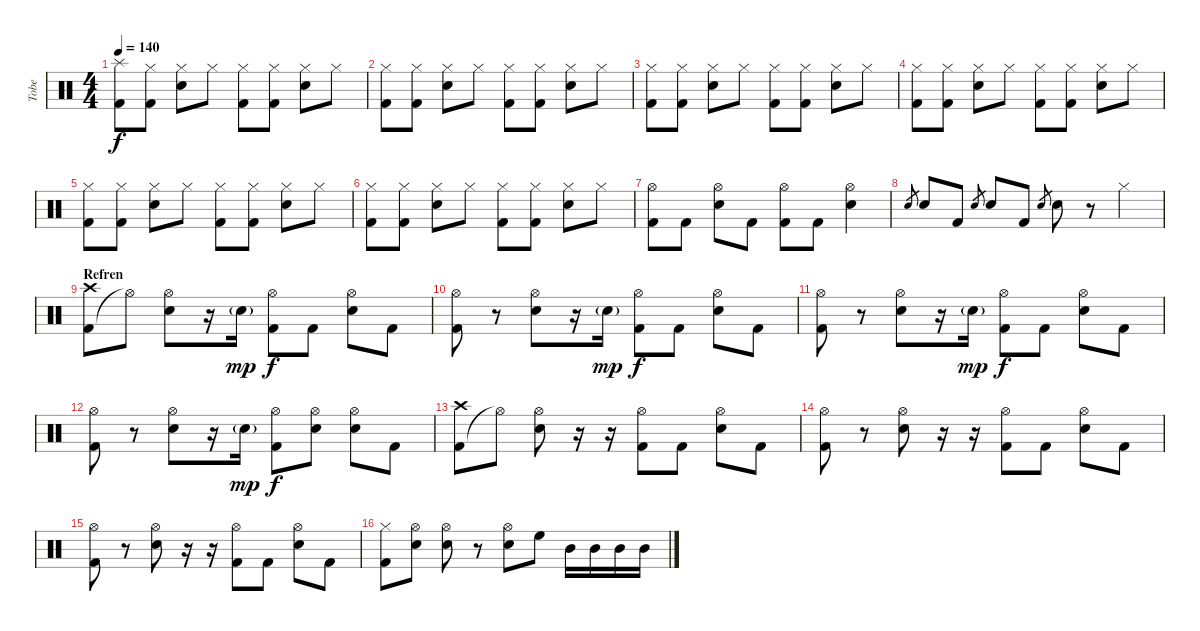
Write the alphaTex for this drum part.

\track ("Tobe" "Tobe") {instrument percussion}
\staff {score}
\articulation defaults
\ts (4 4)
\tempo 140
\clef neutral
\ks c
("Kick (hit) 2" "Splash (hit)").8{dy f} ("Kick (hit) 2" "Hi-Hat (closed)").8 ("Electric Snare (hit)" "Hi-Hat (closed)").8 "Hi-Hat (closed)".8 ("Kick (hit) 2" "Hi-Hat (closed)").8 ("Kick (hit) 2" "Hi-Hat (closed)").8 ("Electric Snare (hit)" "Hi-Hat (closed)").8 "Hi-Hat (closed)".8 |
("Kick (hit) 2" "Hi-Hat (closed)").8 ("Kick (hit) 2" "Hi-Hat (closed)").8 ("Electric Snare (hit)" "Hi-Hat (closed)").8 "Hi-Hat (closed)".8 ("Kick (hit) 2" "Hi-Hat (closed)").8 ("Kick (hit) 2" "Hi-Hat (closed)").8 ("Electric Snare (hit)" "Hi-Hat (closed)").8 "Hi-Hat (closed)".8 |
("Kick (hit) 2" "Hi-Hat (closed)").8 ("Kick (hit) 2" "Hi-Hat (closed)").8 ("Electric Snare (hit)" "Hi-Hat (closed)").8 "Hi-Hat (closed)".8 ("Kick (hit) 2" "Hi-Hat (closed)").8 ("Kick (hit) 2" "Hi-Hat (closed)").8 ("Electric Snare (hit)" "Hi-Hat (closed)").8 "Hi-Hat (closed)".8 |
("Kick (hit) 2" "Hi-Hat (closed)").8 ("Kick (hit) 2" "Hi-Hat (closed)").8 ("Electric Snare (hit)" "Hi-Hat (closed)").8 "Hi-Hat (closed)".8 ("Kick (hit) 2" "Hi-Hat (closed)").8 ("Kick (hit) 2" "Hi-Hat (closed)").8 ("Electric Snare (hit)" "Hi-Hat (closed)").8 "Hi-Hat (closed)".8 |
("Kick (hit) 2" "Hi-Hat (closed)").8 ("Kick (hit) 2" "Hi-Hat (closed)").8 ("Electric Snare (hit)" "Hi-Hat (closed)").8 "Hi-Hat (closed)".8 ("Kick (hit) 2" "Hi-Hat (closed)").8 ("Kick (hit) 2" "Hi-Hat (closed)").8 ("Electric Snare (hit)" "Hi-Hat (closed)").8 "Hi-Hat (closed)".8 |
("Kick (hit) 2" "Hi-Hat (closed)").8 ("Kick (hit) 2" "Hi-Hat (closed)").8 ("Electric Snare (hit)" "Hi-Hat (closed)").8 "Hi-Hat (closed)".8 ("Kick (hit) 2" "Hi-Hat (closed)").8 ("Kick (hit) 2" "Hi-Hat (closed)").8 ("Electric Snare (hit)" "Hi-Hat (closed)").8 "Hi-Hat (closed)".8 |
("Kick (hit) 2" "Hi-Hat (open)").8 "Kick (hit) 2".8 ("Electric Snare (hit)" "Hi-Hat (open)").8 "Kick (hit) 2".8 ("Kick (hit) 2" "Hi-Hat (open)").8 "Kick (hit) 2".8 ("Electric Snare (hit)" "Hi-Hat (open)").4 |
"Electric Snare (hit)".8{gr} "Electric Snare (hit)".8 "Kick (hit) 2".8 "Electric Snare (hit)".8{gr} "Electric Snare (hit)".8 "Kick (hit) 2".8 "Electric Snare (hit)".8{gr} "Electric Snare (hit)".8 r.8 "Hi-Hat (closed)".4 |
\section ("" "Refren")
("Kick (hit) 2" "Crash high (hit)").8 "Hi-Hat (open)"{t}.8 ("Electric Snare (hit)" "Hi-Hat (open)").8 r.16 "Electric Snare (hit)"{g}.16{dy mp} ("Kick (hit) 2" "Hi-Hat (open)").8{dy f} "Kick (hit) 2".8 ("Electric Snare (hit)" "Hi-Hat (open)").8 "Kick (hit) 2".8 |
("Kick (hit) 2" "Hi-Hat (open)").8 r.8 ("Electric Snare (hit)" "Hi-Hat (open)").8 r.16 "Electric Snare (hit)"{g}.16{dy mp} ("Kick (hit) 2" "Hi-Hat (open)").8{dy f} "Kick (hit) 2".8 ("Electric Snare (hit)" "Hi-Hat (open)").8 "Kick (hit) 2".8 |
("Kick (hit) 2" "Hi-Hat (open)").8 r.8 ("Electric Snare (hit)" "Hi-Hat (open)").8 r.16 "Electric Snare (hit)"{g}.16{dy mp} ("Kick (hit) 2" "Hi-Hat (open)").8{dy f} "Kick (hit) 2".8 ("Electric Snare (hit)" "Hi-Hat (open)").8 "Kick (hit) 2".8 |
("Kick (hit) 2" "Hi-Hat (open)").8 r.8 ("Electric Snare (hit)" "Hi-Hat (open)").8 r.16 "Electric Snare (hit)"{g}.16{dy mp} ("Kick (hit) 2" "Hi-Hat (open)").8{dy f} ("Electric Snare (hit)" "Hi-Hat (open)").8 ("Electric Snare (hit)" "Hi-Hat (open)").8 "Kick (hit) 2".8 |
("Kick (hit) 2" "Crash high (hit)").8 "Hi-Hat (open)"{t}.8 ("Electric Snare (hit)" "Hi-Hat (open)").8 r.16 r.16 ("Kick (hit) 2" "Hi-Hat (open)").8 "Kick (hit) 2".8 ("Electric Snare (hit)" "Hi-Hat (open)").8 "Kick (hit) 2".8 |
("Kick (hit) 2" "Hi-Hat (open)").8 r.8 ("Electric Snare (hit)" "Hi-Hat (open)").8 r.16 r.16 ("Kick (hit) 2" "Hi-Hat (open)").8 "Kick (hit) 2".8 ("Electric Snare (hit)" "Hi-Hat (open)").8 "Kick (hit) 2".8 |
("Kick (hit) 2" "Hi-Hat (open)").8 r.8 ("Electric Snare (hit)" "Hi-Hat (open)").8 r.16 r.16 ("Kick (hit) 2" "Hi-Hat (open)").8 "Kick (hit) 2".8 ("Electric Snare (hit)" "Hi-Hat (open)").8 "Kick (hit) 2".8 |
("Kick (hit) 2" "Hi-Hat (closed)").8 ("Electric Snare (hit)" "Hi-Hat (open)").8 ("Electric Snare (hit)" "Hi-Hat (open)").8 r.8 ("Electric Snare (hit)" "Hi-Hat (open)").8 "High Floor Tom (hit)".8 "Mid Tom (hit)".16 "Mid Tom (hit)".16 "Mid Tom (hit)".16 "Mid Tom (hit)".16
